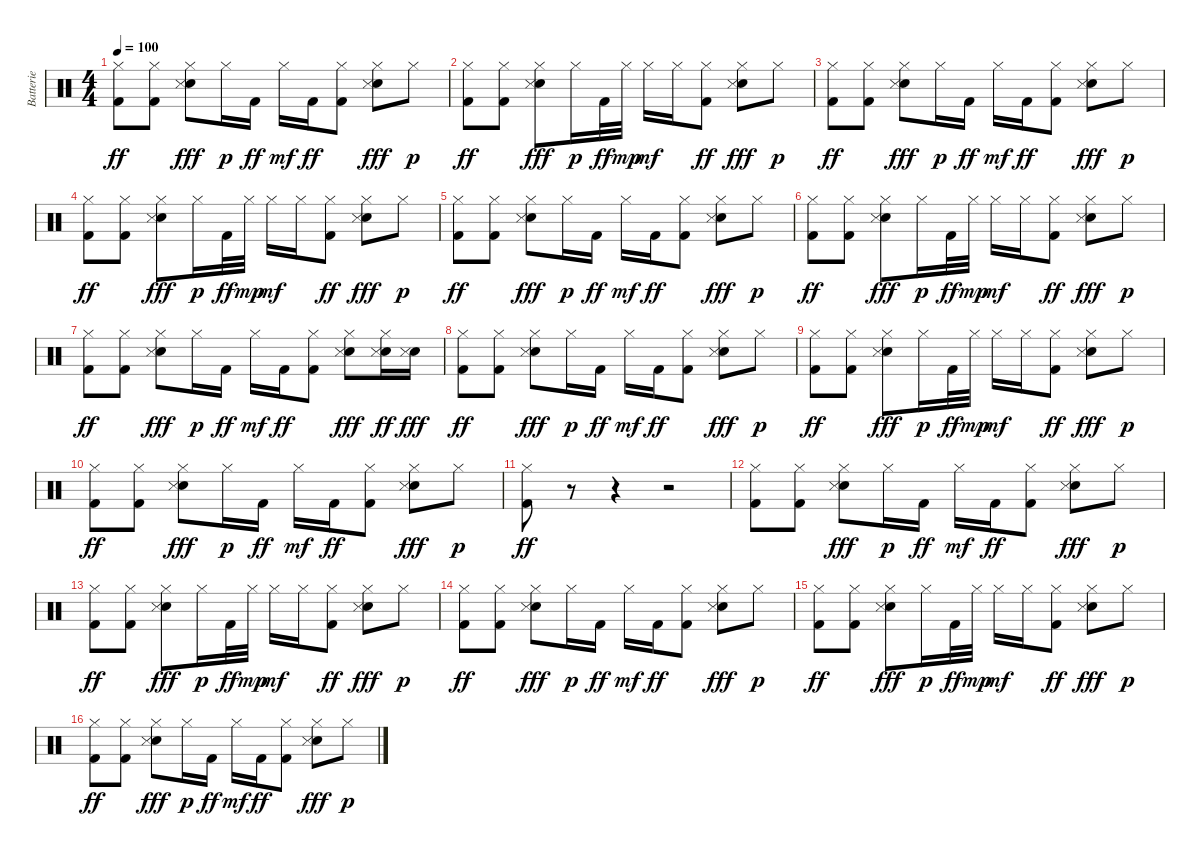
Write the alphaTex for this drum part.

\track ("Batterie" "Batterie") {instrument percussion}
\staff {score}
\articulation defaults
\ts (4 4)
\tempo 100
\clef neutral
\ks c
("Hi-Hat (closed)" "Kick (hit) 2").8{dy ff} ("Hi-Hat (closed)" "Kick (hit) 2").8 ("Hi-Hat (closed)" "Snare (hit) 2" "Snare (side stick) 3").8{dy fff} "Hi-Hat (closed)".16{dy p} "Kick (hit) 2".16{dy ff} "Hi-Hat (closed)".16{dy mf} "Kick (hit) 2".16{dy ff} ("Hi-Hat (closed)" "Kick (hit) 2").8 ("Hi-Hat (closed)" "Snare (hit) 2" "Snare (side stick) 3").8{dy fff} "Hi-Hat (closed)".8{dy p} |
("Hi-Hat (closed)" "Kick (hit) 2").8{dy ff} ("Hi-Hat (closed)" "Kick (hit) 2").8 ("Hi-Hat (closed)" "Snare (hit) 2" "Snare (side stick) 3").8{dy fff} "Hi-Hat (closed)".16{dy p} "Kick (hit) 2".32{dy ff} "Hi-Hat (closed)".32{dy mp} "Hi-Hat (closed)".16{dy mf} "Hi-Hat (closed)".16 ("Hi-Hat (closed)" "Kick (hit) 2").8{dy ff} ("Hi-Hat (closed)" "Snare (hit) 2" "Snare (side stick) 3").8{dy fff} "Hi-Hat (closed)".8{dy p} |
("Hi-Hat (closed)" "Kick (hit) 2").8{dy ff} ("Hi-Hat (closed)" "Kick (hit) 2").8 ("Hi-Hat (closed)" "Snare (hit) 2" "Snare (side stick) 3").8{dy fff} "Hi-Hat (closed)".16{dy p} "Kick (hit) 2".16{dy ff} "Hi-Hat (closed)".16{dy mf} "Kick (hit) 2".16{dy ff} ("Hi-Hat (closed)" "Kick (hit) 2").8 ("Hi-Hat (closed)" "Snare (hit) 2" "Snare (side stick) 3").8{dy fff} "Hi-Hat (closed)".8{dy p} |
("Hi-Hat (closed)" "Kick (hit) 2").8{dy ff} ("Hi-Hat (closed)" "Kick (hit) 2").8 ("Hi-Hat (closed)" "Snare (hit) 2" "Snare (side stick) 3").8{dy fff} "Hi-Hat (closed)".16{dy p} "Kick (hit) 2".32{dy ff} "Hi-Hat (closed)".32{dy mp} "Hi-Hat (closed)".16{dy mf} "Hi-Hat (closed)".16 ("Hi-Hat (closed)" "Kick (hit) 2").8{dy ff} ("Hi-Hat (closed)" "Snare (hit) 2" "Snare (side stick) 3").8{dy fff} "Hi-Hat (closed)".8{dy p} |
("Hi-Hat (closed)" "Kick (hit) 2").8{dy ff} ("Hi-Hat (closed)" "Kick (hit) 2").8 ("Hi-Hat (closed)" "Snare (hit) 2" "Snare (side stick) 3").8{dy fff} "Hi-Hat (closed)".16{dy p} "Kick (hit) 2".16{dy ff} "Hi-Hat (closed)".16{dy mf} "Kick (hit) 2".16{dy ff} ("Hi-Hat (closed)" "Kick (hit) 2").8 ("Hi-Hat (closed)" "Snare (hit) 2" "Snare (side stick) 3").8{dy fff} "Hi-Hat (closed)".8{dy p} |
("Hi-Hat (closed)" "Kick (hit) 2").8{dy ff} ("Hi-Hat (closed)" "Kick (hit) 2").8 ("Hi-Hat (closed)" "Snare (hit) 2" "Snare (side stick) 3").8{dy fff} "Hi-Hat (closed)".16{dy p} "Kick (hit) 2".32{dy ff} "Hi-Hat (closed)".32{dy mp} "Hi-Hat (closed)".16{dy mf} "Hi-Hat (closed)".16 ("Hi-Hat (closed)" "Kick (hit) 2").8{dy ff} ("Hi-Hat (closed)" "Snare (hit) 2" "Snare (side stick) 3").8{dy fff} "Hi-Hat (closed)".8{dy p} |
("Hi-Hat (closed)" "Kick (hit) 2").8{dy ff} ("Hi-Hat (closed)" "Kick (hit) 2").8 ("Hi-Hat (closed)" "Snare (hit) 2" "Snare (side stick) 3").8{dy fff} "Hi-Hat (closed)".16{dy p} "Kick (hit) 2".16{dy ff} "Hi-Hat (closed)".16{dy mf} "Kick (hit) 2".16{dy ff} ("Hi-Hat (closed)" "Kick (hit) 2").8 ("Hi-Hat (closed)" "Snare (hit) 2" "Snare (side stick) 3").8{dy fff} ("Hi-Hat (closed)" "Snare (hit) 2" "Snare (side stick) 3").16{dy ff} ("Snare (hit) 2" "Snare (side stick) 3").16{dy fff} |
("Hi-Hat (closed)" "Kick (hit) 2").8{dy ff} ("Hi-Hat (closed)" "Kick (hit) 2").8 ("Hi-Hat (closed)" "Snare (hit) 2" "Snare (side stick) 3").8{dy fff} "Hi-Hat (closed)".16{dy p} "Kick (hit) 2".16{dy ff} "Hi-Hat (closed)".16{dy mf} "Kick (hit) 2".16{dy ff} ("Hi-Hat (closed)" "Kick (hit) 2").8 ("Hi-Hat (closed)" "Snare (hit) 2" "Snare (side stick) 3").8{dy fff} "Hi-Hat (closed)".8{dy p} |
("Hi-Hat (closed)" "Kick (hit) 2").8{dy ff} ("Hi-Hat (closed)" "Kick (hit) 2").8 ("Hi-Hat (closed)" "Snare (hit) 2" "Snare (side stick) 3").8{dy fff} "Hi-Hat (closed)".16{dy p} "Kick (hit) 2".32{dy ff} "Hi-Hat (closed)".32{dy mp} "Hi-Hat (closed)".16{dy mf} "Hi-Hat (closed)".16 ("Hi-Hat (closed)" "Kick (hit) 2").8{dy ff} ("Hi-Hat (closed)" "Snare (hit) 2" "Snare (side stick) 3").8{dy fff} "Hi-Hat (closed)".8{dy p} |
("Hi-Hat (closed)" "Kick (hit) 2").8{dy ff} ("Hi-Hat (closed)" "Kick (hit) 2").8 ("Hi-Hat (closed)" "Snare (hit) 2" "Snare (side stick) 3").8{dy fff} "Hi-Hat (closed)".16{dy p} "Kick (hit) 2".16{dy ff} "Hi-Hat (closed)".16{dy mf} "Kick (hit) 2".16{dy ff} ("Hi-Hat (closed)" "Kick (hit) 2").8 ("Hi-Hat (closed)" "Snare (hit) 2" "Snare (side stick) 3").8{dy fff} "Hi-Hat (closed)".8{dy p} |
("Hi-Hat (closed)" "Kick (hit) 2").8{dy ff} r.8 r.4 r.2 |
("Hi-Hat (closed)" "Kick (hit) 2").8 ("Hi-Hat (closed)" "Kick (hit) 2").8 ("Hi-Hat (closed)" "Snare (hit) 2" "Snare (side stick) 3").8{dy fff} "Hi-Hat (closed)".16{dy p} "Kick (hit) 2".16{dy ff} "Hi-Hat (closed)".16{dy mf} "Kick (hit) 2".16{dy ff} ("Hi-Hat (closed)" "Kick (hit) 2").8 ("Hi-Hat (closed)" "Snare (hit) 2" "Snare (side stick) 3").8{dy fff} "Hi-Hat (closed)".8{dy p} |
("Hi-Hat (closed)" "Kick (hit) 2").8{dy ff} ("Hi-Hat (closed)" "Kick (hit) 2").8 ("Hi-Hat (closed)" "Snare (hit) 2" "Snare (side stick) 3").8{dy fff} "Hi-Hat (closed)".16{dy p} "Kick (hit) 2".32{dy ff} "Hi-Hat (closed)".32{dy mp} "Hi-Hat (closed)".16{dy mf} "Hi-Hat (closed)".16 ("Hi-Hat (closed)" "Kick (hit) 2").8{dy ff} ("Hi-Hat (closed)" "Snare (hit) 2" "Snare (side stick) 3").8{dy fff} "Hi-Hat (closed)".8{dy p} |
("Hi-Hat (closed)" "Kick (hit) 2").8{dy ff} ("Hi-Hat (closed)" "Kick (hit) 2").8 ("Hi-Hat (closed)" "Snare (hit) 2" "Snare (side stick) 3").8{dy fff} "Hi-Hat (closed)".16{dy p} "Kick (hit) 2".16{dy ff} "Hi-Hat (closed)".16{dy mf} "Kick (hit) 2".16{dy ff} ("Hi-Hat (closed)" "Kick (hit) 2").8 ("Hi-Hat (closed)" "Snare (hit) 2" "Snare (side stick) 3").8{dy fff} "Hi-Hat (closed)".8{dy p} |
("Hi-Hat (closed)" "Kick (hit) 2").8{dy ff} ("Hi-Hat (closed)" "Kick (hit) 2").8 ("Hi-Hat (closed)" "Snare (hit) 2" "Snare (side stick) 3").8{dy fff} "Hi-Hat (closed)".16{dy p} "Kick (hit) 2".32{dy ff} "Hi-Hat (closed)".32{dy mp} "Hi-Hat (closed)".16{dy mf} "Hi-Hat (closed)".16 ("Hi-Hat (closed)" "Kick (hit) 2").8{dy ff} ("Hi-Hat (closed)" "Snare (hit) 2" "Snare (side stick) 3").8{dy fff} "Hi-Hat (closed)".8{dy p} |
("Hi-Hat (closed)" "Kick (hit) 2").8{dy ff} ("Hi-Hat (closed)" "Kick (hit) 2").8 ("Hi-Hat (closed)" "Snare (hit) 2" "Snare (side stick) 3").8{dy fff} "Hi-Hat (closed)".16{dy p} "Kick (hit) 2".16{dy ff} "Hi-Hat (closed)".16{dy mf} "Kick (hit) 2".16{dy ff} ("Hi-Hat (closed)" "Kick (hit) 2").8 ("Hi-Hat (closed)" "Snare (hit) 2" "Snare (side stick) 3").8{dy fff} "Hi-Hat (closed)".8{dy p}
